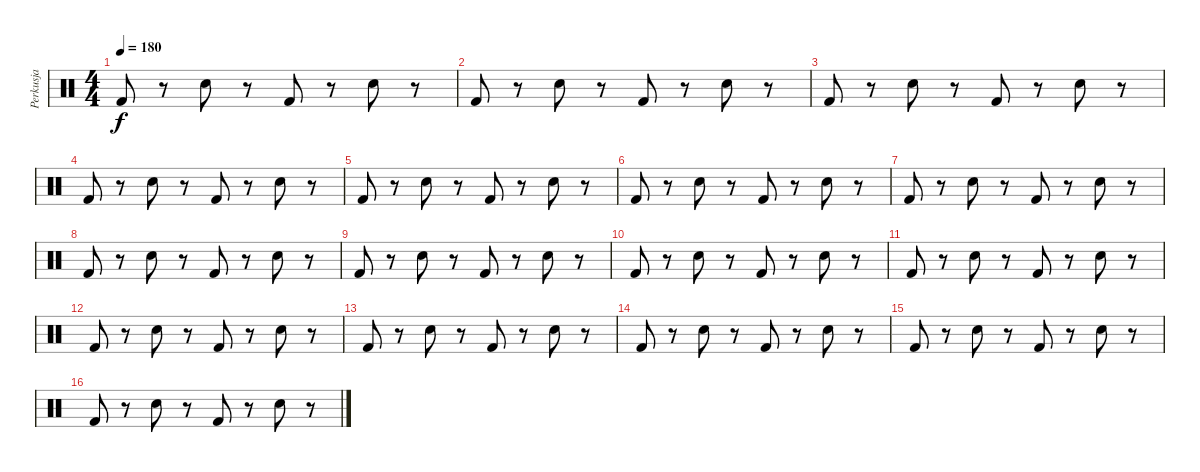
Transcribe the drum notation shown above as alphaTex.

\track ("Perkusja" "Perkusja") {instrument percussion}
\staff {score}
\articulation defaults
\ts (4 4)
\tempo 180
\clef neutral
\ks c "Kick (hit) 2".8{dy f}
r.8 "Electric Snare (hit)".8 r.8 "Kick (hit) 2".8 r.8 "Electric Snare (hit)".8 r.8 |
"Kick (hit) 2".8 r.8 "Electric Snare (hit)".8 r.8 "Kick (hit) 2".8 r.8 "Electric Snare (hit)".8 r.8 |
"Kick (hit) 2".8 r.8 "Electric Snare (hit)".8 r.8 "Kick (hit) 2".8 r.8 "Electric Snare (hit)".8 r.8 |
"Kick (hit) 2".8 r.8 "Electric Snare (hit)".8 r.8 "Kick (hit) 2".8 r.8 "Electric Snare (hit)".8 r.8 |
"Kick (hit) 2".8 r.8 "Electric Snare (hit)".8 r.8 "Kick (hit) 2".8 r.8 "Electric Snare (hit)".8 r.8 |
"Kick (hit) 2".8 r.8 "Electric Snare (hit)".8 r.8 "Kick (hit) 2".8 r.8 "Electric Snare (hit)".8 r.8 |
"Kick (hit) 2".8 r.8 "Electric Snare (hit)".8 r.8 "Kick (hit) 2".8 r.8 "Electric Snare (hit)".8 r.8 |
"Kick (hit) 2".8 r.8 "Electric Snare (hit)".8 r.8 "Kick (hit) 2".8 r.8 "Electric Snare (hit)".8 r.8 |
"Kick (hit) 2".8 r.8 "Electric Snare (hit)".8 r.8 "Kick (hit) 2".8 r.8 "Electric Snare (hit)".8 r.8 |
"Kick (hit) 2".8 r.8 "Electric Snare (hit)".8 r.8 "Kick (hit) 2".8 r.8 "Electric Snare (hit)".8 r.8 |
"Kick (hit) 2".8 r.8 "Electric Snare (hit)".8 r.8 "Kick (hit) 2".8 r.8 "Electric Snare (hit)".8 r.8 |
"Kick (hit) 2".8 r.8 "Electric Snare (hit)".8 r.8 "Kick (hit) 2".8 r.8 "Electric Snare (hit)".8 r.8 |
"Kick (hit) 2".8 r.8 "Electric Snare (hit)".8 r.8 "Kick (hit) 2".8 r.8 "Electric Snare (hit)".8 r.8 |
"Kick (hit) 2".8 r.8 "Electric Snare (hit)".8 r.8 "Kick (hit) 2".8 r.8 "Electric Snare (hit)".8 r.8 |
"Kick (hit) 2".8 r.8 "Electric Snare (hit)".8 r.8 "Kick (hit) 2".8 r.8 "Electric Snare (hit)".8 r.8 |
"Kick (hit) 2".8 r.8 "Electric Snare (hit)".8 r.8 "Kick (hit) 2".8 r.8 "Electric Snare (hit)".8 r.8
